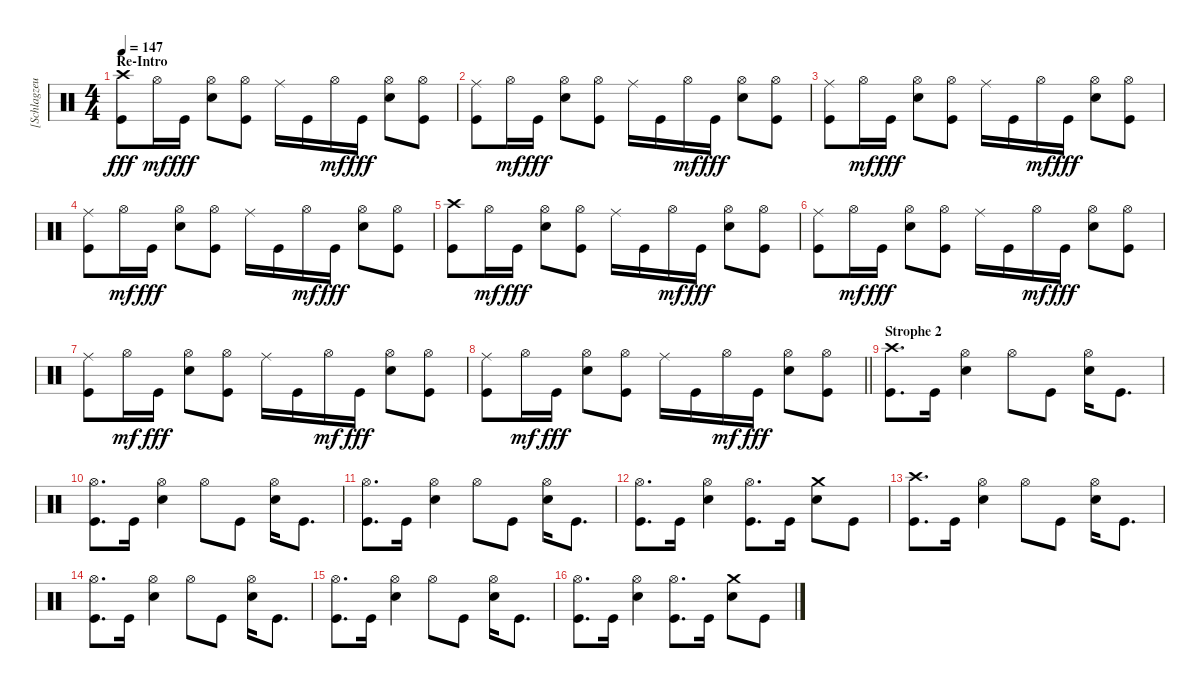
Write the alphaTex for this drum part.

\track ("[Schlagzeug]" "[Schlagzeu") {instrument percussion}
\staff {score}
\articulation defaults
\ts (4 4)
\section ("" "Re-Intro")
\tempo 147
\clef neutral
\ks c
("Crash high (hit)" "Kick (hit)").8{dy fff} "Hi-Hat (open)".16{dy mf} "Kick (hit)".16{dy fff} ("Hi-Hat (open)" "Electric Snare (hit)").8 ("Hi-Hat (open)" "Kick (hit)").8 "Ride (middle)".16 "Kick (hit)".16 "Hi-Hat (open)".16{dy mf} "Kick (hit)".16{dy fff} ("Hi-Hat (open)" "Electric Snare (hit)").8 ("Hi-Hat (open)" "Kick (hit)").8 |
("Ride (middle)" "Kick (hit)").8 "Hi-Hat (open)".16{dy mf} "Kick (hit)".16{dy fff} ("Hi-Hat (open)" "Electric Snare (hit)").8 ("Hi-Hat (open)" "Kick (hit)").8 "Ride (middle)".16 "Kick (hit)".16 "Hi-Hat (open)".16{dy mf} "Kick (hit)".16{dy fff} ("Hi-Hat (open)" "Electric Snare (hit)").8 ("Hi-Hat (open)" "Kick (hit)").8 |
("Ride (middle)" "Kick (hit)").8 "Hi-Hat (open)".16{dy mf} "Kick (hit)".16{dy fff} ("Hi-Hat (open)" "Electric Snare (hit)").8 ("Hi-Hat (open)" "Kick (hit)").8 "Ride (middle)".16 "Kick (hit)".16 "Hi-Hat (open)".16{dy mf} "Kick (hit)".16{dy fff} ("Hi-Hat (open)" "Electric Snare (hit)").8 ("Hi-Hat (open)" "Kick (hit)").8 |
("Ride (middle)" "Kick (hit)").8 "Hi-Hat (open)".16{dy mf} "Kick (hit)".16{dy fff} ("Hi-Hat (open)" "Electric Snare (hit)").8 ("Hi-Hat (open)" "Kick (hit)").8 "Ride (middle)".16 "Kick (hit)".16 "Hi-Hat (open)".16{dy mf} "Kick (hit)".16{dy fff} ("Hi-Hat (open)" "Electric Snare (hit)").8 ("Hi-Hat (open)" "Kick (hit)").8 |
("Crash high (hit)" "Kick (hit)").8 "Hi-Hat (open)".16{dy mf} "Kick (hit)".16{dy fff} ("Hi-Hat (open)" "Electric Snare (hit)").8 ("Hi-Hat (open)" "Kick (hit)").8 "Ride (middle)".16 "Kick (hit)".16 "Hi-Hat (open)".16{dy mf} "Kick (hit)".16{dy fff} ("Hi-Hat (open)" "Electric Snare (hit)").8 ("Hi-Hat (open)" "Kick (hit)").8 |
("Ride (middle)" "Kick (hit)").8 "Hi-Hat (open)".16{dy mf} "Kick (hit)".16{dy fff} ("Hi-Hat (open)" "Electric Snare (hit)").8 ("Hi-Hat (open)" "Kick (hit)").8 "Ride (middle)".16 "Kick (hit)".16 "Hi-Hat (open)".16{dy mf} "Kick (hit)".16{dy fff} ("Hi-Hat (open)" "Electric Snare (hit)").8 ("Hi-Hat (open)" "Kick (hit)").8 |
("Ride (middle)" "Kick (hit)").8 "Hi-Hat (open)".16{dy mf} "Kick (hit)".16{dy fff} ("Hi-Hat (open)" "Electric Snare (hit)").8 ("Hi-Hat (open)" "Kick (hit)").8 "Ride (middle)".16 "Kick (hit)".16 "Hi-Hat (open)".16{dy mf} "Kick (hit)".16{dy fff} ("Hi-Hat (open)" "Electric Snare (hit)").8 ("Hi-Hat (open)" "Kick (hit)").8 |
\barLineRight lightlight
("Ride (middle)" "Kick (hit)").8 "Hi-Hat (open)".16{dy mf} "Kick (hit)".16{dy fff} ("Hi-Hat (open)" "Electric Snare (hit)").8 ("Hi-Hat (open)" "Kick (hit)").8 "Ride (middle)".16 "Kick (hit)".16 "Hi-Hat (open)".16{dy mf} "Kick (hit)".16{dy fff} ("Hi-Hat (open)" "Electric Snare (hit)").8 ("Hi-Hat (open)" "Kick (hit)").8 |
\section ("" "Strophe 2")
("Crash high (hit)" "Kick (hit)").8{d} "Kick (hit)".16 ("Hi-Hat (open)" "Electric Snare (hit)").4 "Hi-Hat (open)".8 "Kick (hit)".8 ("Hi-Hat (open)" "Electric Snare (hit)").16 "Kick (hit)".8{d} |
("Hi-Hat (open)" "Kick (hit)").8{d} "Kick (hit)".16 ("Hi-Hat (open)" "Electric Snare (hit)").4 "Hi-Hat (open)".8 "Kick (hit)".8 ("Hi-Hat (open)" "Electric Snare (hit)").16 "Kick (hit)".8{d} |
("Hi-Hat (open)" "Kick (hit)").8{d} "Kick (hit)".16 ("Hi-Hat (open)" "Electric Snare (hit)").4 "Hi-Hat (open)".8 "Kick (hit)".8 ("Hi-Hat (open)" "Electric Snare (hit)").16 "Kick (hit)".8{d} |
("Hi-Hat (open)" "Kick (hit)").8{d} "Kick (hit)".16 ("Hi-Hat (open)" "Electric Snare (hit)").4 ("Hi-Hat (open)" "Kick (hit)").8{d} "Kick (hit)".16 ("Crash medium (hit)" "Electric Snare (hit)").8 "Kick (hit)".8 |
("Crash high (hit)" "Kick (hit)").8{d} "Kick (hit)".16 ("Hi-Hat (open)" "Electric Snare (hit)").4 "Hi-Hat (open)".8 "Kick (hit)".8 ("Hi-Hat (open)" "Electric Snare (hit)").16 "Kick (hit)".8{d} |
("Hi-Hat (open)" "Kick (hit)").8{d} "Kick (hit)".16 ("Hi-Hat (open)" "Electric Snare (hit)").4 "Hi-Hat (open)".8 "Kick (hit)".8 ("Hi-Hat (open)" "Electric Snare (hit)").16 "Kick (hit)".8{d} |
("Hi-Hat (open)" "Kick (hit)").8{d} "Kick (hit)".16 ("Hi-Hat (open)" "Electric Snare (hit)").4 "Hi-Hat (open)".8 "Kick (hit)".8 ("Hi-Hat (open)" "Electric Snare (hit)").16 "Kick (hit)".8{d} |
("Hi-Hat (open)" "Kick (hit)").8{d} "Kick (hit)".16 ("Hi-Hat (open)" "Electric Snare (hit)").4 ("Hi-Hat (open)" "Kick (hit)").8{d} "Kick (hit)".16 ("Crash medium (hit)" "Electric Snare (hit)").8 "Kick (hit)".8
